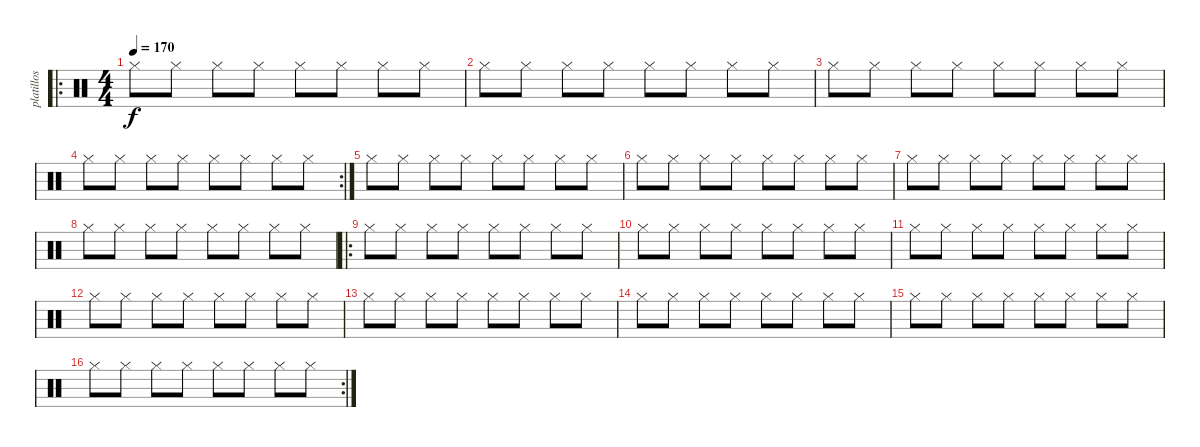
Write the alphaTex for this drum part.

\track ("platillos" "platillos") {instrument percussion}
\staff {score}
\articulation defaults
\ro
\ts (4 4)
\tempo 170
\clef neutral
\ks c "Hi-Hat (closed)".8{dy f} "Hi-Hat (closed)".8 "Hi-Hat (closed)".8 "Hi-Hat (closed)".8 "Hi-Hat (closed)".8 "Hi-Hat (closed)".8 "Hi-Hat (closed)".8 "Hi-Hat (closed)".8
|
"Hi-Hat (closed)".8 "Hi-Hat (closed)".8 "Hi-Hat (closed)".8 "Hi-Hat (closed)".8 "Hi-Hat (closed)".8 "Hi-Hat (closed)".8 "Hi-Hat (closed)".8 "Hi-Hat (closed)".8 |
"Hi-Hat (closed)".8 "Hi-Hat (closed)".8 "Hi-Hat (closed)".8 "Hi-Hat (closed)".8 "Hi-Hat (closed)".8 "Hi-Hat (closed)".8 "Hi-Hat (closed)".8 "Hi-Hat (closed)".8 |
\rc 2 "Hi-Hat (closed)".8 "Hi-Hat (closed)".8 "Hi-Hat (closed)".8 "Hi-Hat (closed)".8 "Hi-Hat (closed)".8 "Hi-Hat (closed)".8 "Hi-Hat (closed)".8 "Hi-Hat (closed)".8
|
"Hi-Hat (closed)".8 "Hi-Hat (closed)".8 "Hi-Hat (closed)".8 "Hi-Hat (closed)".8 "Hi-Hat (closed)".8 "Hi-Hat (closed)".8 "Hi-Hat (closed)".8 "Hi-Hat (closed)".8 |
"Hi-Hat (closed)".8 "Hi-Hat (closed)".8 "Hi-Hat (closed)".8 "Hi-Hat (closed)".8 "Hi-Hat (closed)".8 "Hi-Hat (closed)".8 "Hi-Hat (closed)".8 "Hi-Hat (closed)".8 |
"Hi-Hat (closed)".8 "Hi-Hat (closed)".8 "Hi-Hat (closed)".8 "Hi-Hat (closed)".8 "Hi-Hat (closed)".8 "Hi-Hat (closed)".8 "Hi-Hat (closed)".8 "Hi-Hat (closed)".8 |
"Hi-Hat (closed)".8 "Hi-Hat (closed)".8 "Hi-Hat (closed)".8 "Hi-Hat (closed)".8 "Hi-Hat (closed)".8 "Hi-Hat (closed)".8 "Hi-Hat (closed)".8 "Hi-Hat (closed)".8 |
\ro "Hi-Hat (closed)".8 "Hi-Hat (closed)".8 "Hi-Hat (closed)".8 "Hi-Hat (closed)".8 "Hi-Hat (closed)".8 "Hi-Hat (closed)".8 "Hi-Hat (closed)".8 "Hi-Hat (closed)".8
|
"Hi-Hat (closed)".8 "Hi-Hat (closed)".8 "Hi-Hat (closed)".8 "Hi-Hat (closed)".8 "Hi-Hat (closed)".8 "Hi-Hat (closed)".8 "Hi-Hat (closed)".8 "Hi-Hat (closed)".8 |
"Hi-Hat (closed)".8 "Hi-Hat (closed)".8 "Hi-Hat (closed)".8 "Hi-Hat (closed)".8 "Hi-Hat (closed)".8 "Hi-Hat (closed)".8 "Hi-Hat (closed)".8 "Hi-Hat (closed)".8 |
"Hi-Hat (closed)".8 "Hi-Hat (closed)".8 "Hi-Hat (closed)".8 "Hi-Hat (closed)".8 "Hi-Hat (closed)".8 "Hi-Hat (closed)".8 "Hi-Hat (closed)".8 "Hi-Hat (closed)".8 |
"Hi-Hat (closed)".8 "Hi-Hat (closed)".8 "Hi-Hat (closed)".8 "Hi-Hat (closed)".8 "Hi-Hat (closed)".8 "Hi-Hat (closed)".8 "Hi-Hat (closed)".8 "Hi-Hat (closed)".8 |
"Hi-Hat (closed)".8 "Hi-Hat (closed)".8 "Hi-Hat (closed)".8 "Hi-Hat (closed)".8 "Hi-Hat (closed)".8 "Hi-Hat (closed)".8 "Hi-Hat (closed)".8 "Hi-Hat (closed)".8 |
"Hi-Hat (closed)".8 "Hi-Hat (closed)".8 "Hi-Hat (closed)".8 "Hi-Hat (closed)".8 "Hi-Hat (closed)".8 "Hi-Hat (closed)".8 "Hi-Hat (closed)".8 "Hi-Hat (closed)".8 |
\rc 2 "Hi-Hat (closed)".8 "Hi-Hat (closed)".8 "Hi-Hat (closed)".8 "Hi-Hat (closed)".8 "Hi-Hat (closed)".8 "Hi-Hat (closed)".8 "Hi-Hat (closed)".8 "Hi-Hat (closed)".8
